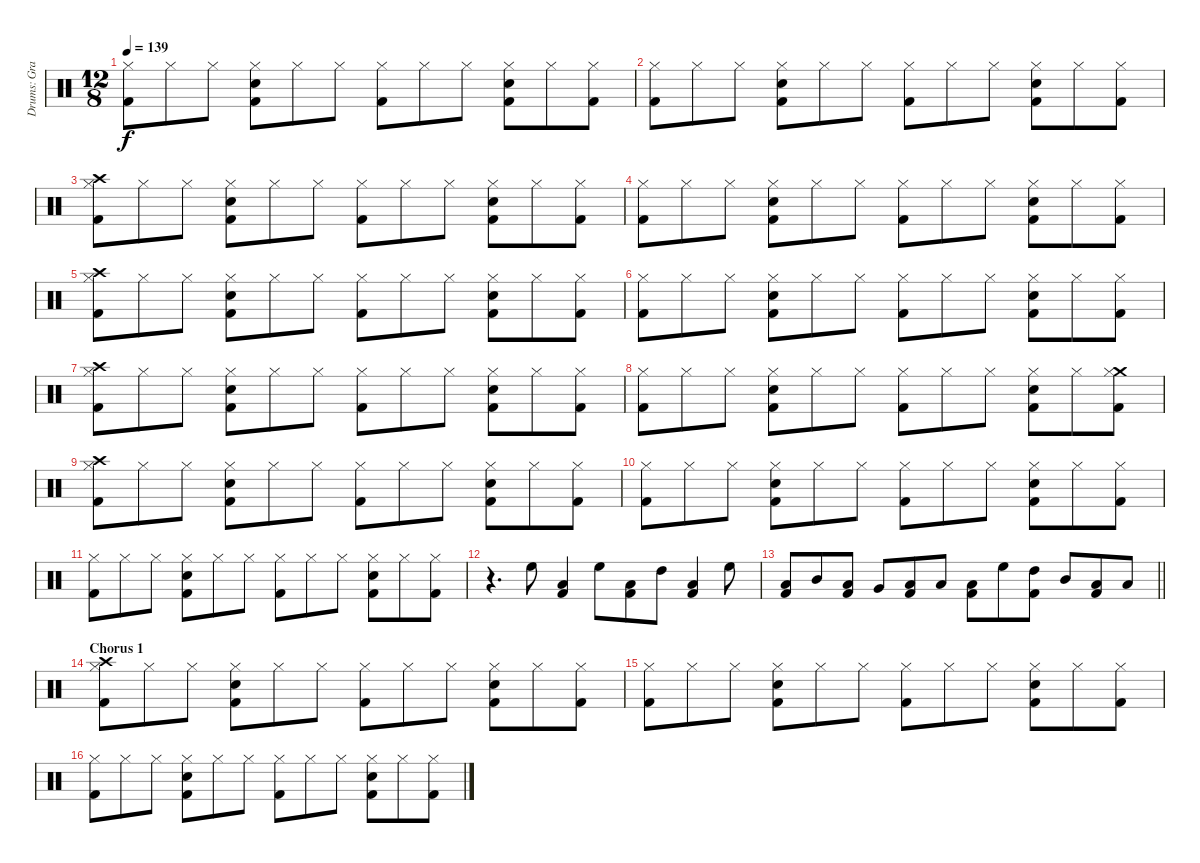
\track ("Drums: Graeme Edge" "Drums: Gra") {instrument percussion}
\staff {score}
\articulation defaults
\ts (12 8)
\tempo 139
\clef neutral
\ks c
("Hi-Hat (closed)" "Kick (hit) 2").8{dy f} "Hi-Hat (closed)".8 "Hi-Hat (closed)".8 ("Hi-Hat (closed)" "Snare (hit) 2" "Kick (hit) 2").8 "Hi-Hat (closed)".8 "Hi-Hat (closed)".8 ("Hi-Hat (closed)" "Kick (hit) 2").8 "Hi-Hat (closed)".8 "Hi-Hat (closed)".8 ("Hi-Hat (closed)" "Snare (hit) 2" "Kick (hit) 2").8 "Hi-Hat (closed)".8 ("Hi-Hat (closed)" "Kick (hit) 2").8 |
("Hi-Hat (closed)" "Kick (hit) 2").8 "Hi-Hat (closed)".8 "Hi-Hat (closed)".8 ("Hi-Hat (closed)" "Snare (hit) 2" "Kick (hit) 2").8 "Hi-Hat (closed)".8 "Hi-Hat (closed)".8 ("Hi-Hat (closed)" "Kick (hit) 2").8 "Hi-Hat (closed)".8 "Hi-Hat (closed)".8 ("Hi-Hat (closed)" "Snare (hit) 2" "Kick (hit) 2").8 "Hi-Hat (closed)".8 ("Hi-Hat (closed)" "Kick (hit) 2").8 |
("Crash high (hit)" "Hi-Hat (closed)" "Kick (hit) 2").8 "Hi-Hat (closed)".8 "Hi-Hat (closed)".8 ("Hi-Hat (closed)" "Snare (hit) 2" "Kick (hit) 2").8 "Hi-Hat (closed)".8 "Hi-Hat (closed)".8 ("Hi-Hat (closed)" "Kick (hit) 2").8 "Hi-Hat (closed)".8 "Hi-Hat (closed)".8 ("Hi-Hat (closed)" "Snare (hit) 2" "Kick (hit) 2").8 "Hi-Hat (closed)".8 ("Hi-Hat (closed)" "Kick (hit) 2").8 |
("Hi-Hat (closed)" "Kick (hit) 2").8 "Hi-Hat (closed)".8 "Hi-Hat (closed)".8 ("Hi-Hat (closed)" "Snare (hit) 2" "Kick (hit) 2").8 "Hi-Hat (closed)".8 "Hi-Hat (closed)".8 ("Hi-Hat (closed)" "Kick (hit) 2").8 "Hi-Hat (closed)".8 "Hi-Hat (closed)".8 ("Hi-Hat (closed)" "Snare (hit) 2" "Kick (hit) 2").8 "Hi-Hat (closed)".8 ("Hi-Hat (closed)" "Kick (hit) 2").8 |
("Crash high (hit)" "Hi-Hat (closed)" "Kick (hit) 2").8 "Hi-Hat (closed)".8 "Hi-Hat (closed)".8 ("Hi-Hat (closed)" "Snare (hit) 2" "Kick (hit) 2").8 "Hi-Hat (closed)".8 "Hi-Hat (closed)".8 ("Hi-Hat (closed)" "Kick (hit) 2").8 "Hi-Hat (closed)".8 "Hi-Hat (closed)".8 ("Hi-Hat (closed)" "Snare (hit) 2" "Kick (hit) 2").8 "Hi-Hat (closed)".8 ("Hi-Hat (closed)" "Kick (hit) 2").8 |
("Hi-Hat (closed)" "Kick (hit) 2").8 "Hi-Hat (closed)".8 "Hi-Hat (closed)".8 ("Hi-Hat (closed)" "Snare (hit) 2" "Kick (hit) 2").8 "Hi-Hat (closed)".8 "Hi-Hat (closed)".8 ("Hi-Hat (closed)" "Kick (hit) 2").8 "Hi-Hat (closed)".8 "Hi-Hat (closed)".8 ("Hi-Hat (closed)" "Snare (hit) 2" "Kick (hit) 2").8 "Hi-Hat (closed)".8 ("Hi-Hat (closed)" "Kick (hit) 2").8 |
("Crash high (hit)" "Hi-Hat (closed)" "Kick (hit) 2").8 "Hi-Hat (closed)".8 "Hi-Hat (closed)".8 ("Hi-Hat (closed)" "Snare (hit) 2" "Kick (hit) 2").8 "Hi-Hat (closed)".8 "Hi-Hat (closed)".8 ("Hi-Hat (closed)" "Kick (hit) 2").8 "Hi-Hat (closed)".8 "Hi-Hat (closed)".8 ("Hi-Hat (closed)" "Snare (hit) 2" "Kick (hit) 2").8 "Hi-Hat (closed)".8 ("Hi-Hat (closed)" "Kick (hit) 2").8 |
("Hi-Hat (closed)" "Kick (hit) 2").8 "Hi-Hat (closed)".8 "Hi-Hat (closed)".8 ("Hi-Hat (closed)" "Snare (hit) 2" "Kick (hit) 2").8 "Hi-Hat (closed)".8 "Hi-Hat (closed)".8 ("Hi-Hat (closed)" "Kick (hit) 2").8 "Hi-Hat (closed)".8 "Hi-Hat (closed)".8 ("Hi-Hat (closed)" "Snare (hit) 2" "Kick (hit) 2").8 "Hi-Hat (closed)".8 ("Crash medium (hit)" "Hi-Hat (closed)" "Kick (hit) 2").8 |
("Crash high (hit)" "Hi-Hat (closed)" "Kick (hit) 2").8 "Hi-Hat (closed)".8 "Hi-Hat (closed)".8 ("Hi-Hat (closed)" "Snare (hit) 2" "Kick (hit) 2").8 "Hi-Hat (closed)".8 "Hi-Hat (closed)".8 ("Hi-Hat (closed)" "Kick (hit) 2").8 "Hi-Hat (closed)".8 "Hi-Hat (closed)".8 ("Hi-Hat (closed)" "Snare (hit) 2" "Kick (hit) 2").8 "Hi-Hat (closed)".8 ("Hi-Hat (closed)" "Kick (hit) 2").8 |
("Hi-Hat (closed)" "Kick (hit) 2").8 "Hi-Hat (closed)".8 "Hi-Hat (closed)".8 ("Hi-Hat (closed)" "Snare (hit) 2" "Kick (hit) 2").8 "Hi-Hat (closed)".8 "Hi-Hat (closed)".8 ("Hi-Hat (closed)" "Kick (hit) 2").8 "Hi-Hat (closed)".8 "Hi-Hat (closed)".8 ("Hi-Hat (closed)" "Snare (hit) 2" "Kick (hit) 2").8 "Hi-Hat (closed)".8 ("Hi-Hat (closed)" "Kick (hit) 2").8 |
("Hi-Hat (closed)" "Kick (hit) 2").8 "Hi-Hat (closed)".8 "Hi-Hat (closed)".8 ("Hi-Hat (closed)" "Snare (hit) 2" "Kick (hit) 2").8 "Hi-Hat (closed)".8 "Hi-Hat (closed)".8 ("Hi-Hat (closed)" "Kick (hit) 2").8 "Hi-Hat (closed)".8 "Hi-Hat (closed)".8 ("Hi-Hat (closed)" "Snare (hit) 2" "Kick (hit) 2").8 "Hi-Hat (closed)".8 ("Hi-Hat (closed)" "Kick (hit) 2").8 |
r.4{d} "High Floor Tom (hit)".8 ("Low Floor Tom (hit)" "Kick (hit) 2").4 "High Floor Tom (hit)".8 ("Low Floor Tom (hit)" "Kick (hit) 2").8 "High Tom (hit)".8 ("Low Floor Tom (hit)" "Kick (hit) 2").4 "High Floor Tom (hit)".8 |
\barLineRight lightlight
("Low Floor Tom (hit)" "Kick (hit) 2").8 "Mid Tom (hit)".8 ("Low Floor Tom (hit)" "Kick (hit) 2").8 "Very Low Tom (hit)".8 ("Low Floor Tom (hit)" "Kick (hit) 2").8 "Low Floor Tom (hit)".8 ("Low Floor Tom (hit)" "Kick (hit) 2").8 "High Floor Tom (hit)".8 ("High Tom (hit)" "Kick (hit) 2").8 "Mid Tom (hit)".8 ("Low Tom (hit)" "Kick (hit) 2").8 "Low Floor Tom (hit)".8 |
\section ("" "Chorus 1")
("Crash high (hit)" "Hi-Hat (closed)" "Kick (hit) 2").8 "Hi-Hat (closed)".8 "Hi-Hat (closed)".8 ("Hi-Hat (closed)" "Snare (hit) 2" "Kick (hit) 2").8 "Hi-Hat (closed)".8 "Hi-Hat (closed)".8 ("Hi-Hat (closed)" "Kick (hit) 2").8 "Hi-Hat (closed)".8 "Hi-Hat (closed)".8 ("Hi-Hat (closed)" "Snare (hit) 2" "Kick (hit) 2").8 "Hi-Hat (closed)".8 ("Hi-Hat (closed)" "Kick (hit) 2").8 |
("Hi-Hat (closed)" "Kick (hit) 2").8 "Hi-Hat (closed)".8 "Hi-Hat (closed)".8 ("Hi-Hat (closed)" "Snare (hit) 2" "Kick (hit) 2").8 "Hi-Hat (closed)".8 "Hi-Hat (closed)".8 ("Hi-Hat (closed)" "Kick (hit) 2").8 "Hi-Hat (closed)".8 "Hi-Hat (closed)".8 ("Hi-Hat (closed)" "Snare (hit) 2" "Kick (hit) 2").8 "Hi-Hat (closed)".8 ("Hi-Hat (closed)" "Kick (hit) 2").8 |
("Hi-Hat (closed)" "Kick (hit) 2").8 "Hi-Hat (closed)".8 "Hi-Hat (closed)".8 ("Hi-Hat (closed)" "Snare (hit) 2" "Kick (hit) 2").8 "Hi-Hat (closed)".8 "Hi-Hat (closed)".8 ("Hi-Hat (closed)" "Kick (hit) 2").8 "Hi-Hat (closed)".8 "Hi-Hat (closed)".8 ("Hi-Hat (closed)" "Snare (hit) 2" "Kick (hit) 2").8 "Hi-Hat (closed)".8 ("Hi-Hat (closed)" "Kick (hit) 2").8
